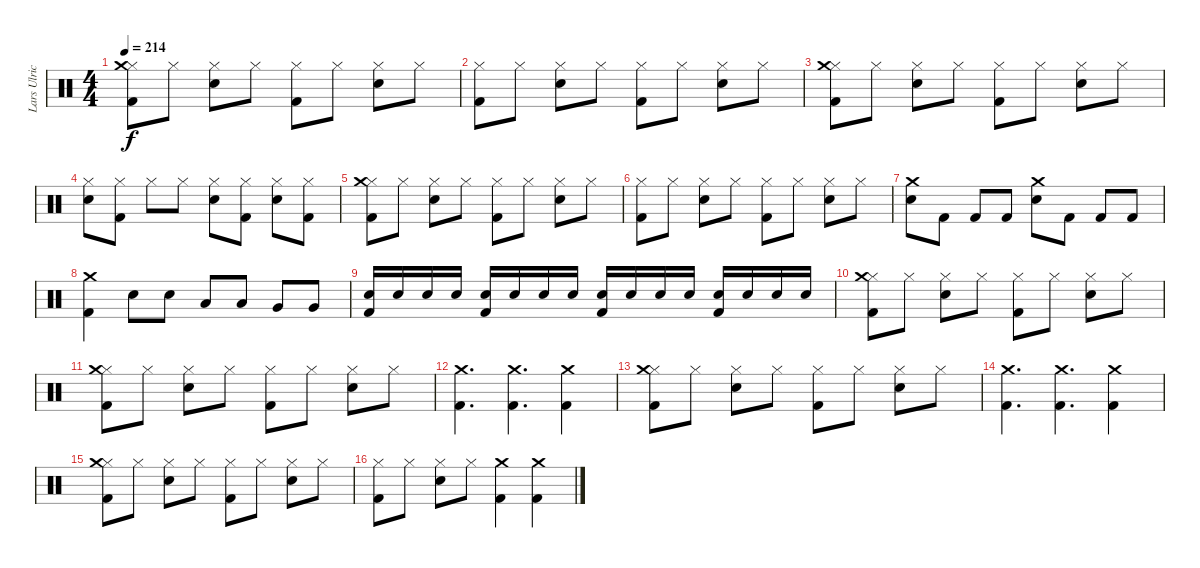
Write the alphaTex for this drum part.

\track ("Lars Ulrich" "Lars Ulric") {instrument percussion}
\staff {score}
\articulation defaults
\ts (4 4)
\tempo 214
\clef neutral
\ks c
("Hi-Hat (closed)" "Kick (hit) 2" "Crash medium (hit)").8{dy f} "Hi-Hat (closed)".8 ("Hi-Hat (closed)" "Snare (hit) 2").8 "Hi-Hat (closed)".8 ("Hi-Hat (closed)" "Kick (hit) 2").8 "Hi-Hat (closed)".8 ("Hi-Hat (closed)" "Snare (hit) 2").8 "Hi-Hat (closed)".8 |
("Hi-Hat (closed)" "Kick (hit) 2").8 "Hi-Hat (closed)".8 ("Hi-Hat (closed)" "Snare (hit) 2").8 "Hi-Hat (closed)".8 ("Hi-Hat (closed)" "Kick (hit) 2").8 "Hi-Hat (closed)".8 ("Hi-Hat (closed)" "Snare (hit) 2").8 "Hi-Hat (closed)".8 |
("Hi-Hat (closed)" "Kick (hit) 2" "Crash medium (hit)").8 "Hi-Hat (closed)".8 ("Hi-Hat (closed)" "Snare (hit) 2").8 "Hi-Hat (closed)".8 ("Hi-Hat (closed)" "Kick (hit) 2").8 "Hi-Hat (closed)".8 ("Hi-Hat (closed)" "Snare (hit) 2").8 "Hi-Hat (closed)".8 |
("Hi-Hat (closed)" "Snare (hit) 2").8 ("Hi-Hat (closed)" "Kick (hit) 2").8 "Hi-Hat (closed)".8 "Hi-Hat (closed)".8 ("Hi-Hat (closed)" "Snare (hit) 2").8 ("Hi-Hat (closed)" "Kick (hit) 2").8 ("Hi-Hat (closed)" "Snare (hit) 2").8 ("Hi-Hat (closed)" "Kick (hit) 2").8 |
("Hi-Hat (closed)" "Kick (hit) 2" "Crash medium (hit)").8 "Hi-Hat (closed)".8 ("Hi-Hat (closed)" "Snare (hit) 2").8 "Hi-Hat (closed)".8 ("Hi-Hat (closed)" "Kick (hit) 2").8 "Hi-Hat (closed)".8 ("Hi-Hat (closed)" "Snare (hit) 2").8 "Hi-Hat (closed)".8 |
("Hi-Hat (closed)" "Kick (hit) 2").8 "Hi-Hat (closed)".8 ("Hi-Hat (closed)" "Snare (hit) 2").8 "Hi-Hat (closed)".8 ("Hi-Hat (closed)" "Kick (hit) 2").8 "Hi-Hat (closed)".8 ("Hi-Hat (closed)" "Snare (hit) 2").8 "Hi-Hat (closed)".8 |
("Snare (hit) 2" "Crash medium (hit)").8 "Kick (hit) 2".8 "Kick (hit) 2".8 "Kick (hit) 2".8 ("Snare (hit) 2" "Crash medium (hit)").8 "Kick (hit) 2".8 "Kick (hit) 2".8 "Kick (hit) 2".8 |
("Kick (hit) 2" "Crash medium (hit)").4 "Snare (hit) 2".8 "Snare (hit) 2".8 "Low Tom (hit)".8 "Low Tom (hit)".8 "Very Low Tom (hit)".8 "Very Low Tom (hit)".8 |
("Snare (hit) 2" "Kick (hit) 2").16{volume 7} "Snare (hit) 2".16 "Snare (hit) 2".16 "Snare (hit) 2".16 ("Snare (hit) 2" "Kick (hit) 2").16{volume 9} "Snare (hit) 2".16 "Snare (hit) 2".16 "Snare (hit) 2".16 ("Snare (hit) 2" "Kick (hit) 2").16{volume 11} "Snare (hit) 2".16 "Snare (hit) 2".16 "Snare (hit) 2".16 ("Snare (hit) 2" "Kick (hit) 2").16{volume 13} "Snare (hit) 2".16 "Snare (hit) 2".16 "Snare (hit) 2".16 |
("Hi-Hat (closed)" "Kick (hit) 2" "Crash medium (hit)").8 "Hi-Hat (closed)".8 ("Hi-Hat (closed)" "Snare (hit) 2").8 "Hi-Hat (closed)".8 ("Hi-Hat (closed)" "Kick (hit) 2").8 "Hi-Hat (closed)".8 ("Hi-Hat (closed)" "Snare (hit) 2").8 "Hi-Hat (closed)".8 |
("Hi-Hat (closed)" "Kick (hit) 2" "Crash medium (hit)").8 "Hi-Hat (closed)".8 ("Hi-Hat (closed)" "Snare (hit) 2").8 "Hi-Hat (closed)".8 ("Hi-Hat (closed)" "Kick (hit) 2").8 "Hi-Hat (closed)".8 ("Hi-Hat (closed)" "Snare (hit) 2").8 "Hi-Hat (closed)".8 |
("Kick (hit) 2" "Crash medium (hit)").4{d} ("Crash medium (hit)" "Kick (hit) 2").4{d} ("Kick (hit) 2" "Crash medium (hit)").4 |
("Hi-Hat (closed)" "Kick (hit) 2" "Crash medium (hit)").8 "Hi-Hat (closed)".8 ("Hi-Hat (closed)" "Snare (hit) 2").8 "Hi-Hat (closed)".8 ("Hi-Hat (closed)" "Kick (hit) 2").8 "Hi-Hat (closed)".8 ("Hi-Hat (closed)" "Snare (hit) 2").8 "Hi-Hat (closed)".8 |
("Kick (hit) 2" "Crash medium (hit)").4{d} ("Crash medium (hit)" "Kick (hit) 2").4{d} ("Kick (hit) 2" "Crash medium (hit)").4 |
("Hi-Hat (closed)" "Kick (hit) 2" "Crash medium (hit)").8 "Hi-Hat (closed)".8 ("Hi-Hat (closed)" "Snare (hit) 2").8 "Hi-Hat (closed)".8 ("Hi-Hat (closed)" "Kick (hit) 2").8 "Hi-Hat (closed)".8 ("Hi-Hat (closed)" "Snare (hit) 2").8 "Hi-Hat (closed)".8 |
("Hi-Hat (closed)" "Kick (hit) 2").8 "Hi-Hat (closed)".8 ("Hi-Hat (closed)" "Snare (hit) 2").8 "Hi-Hat (closed)".8 ("Kick (hit) 2" "Crash medium (hit)").4 ("Kick (hit) 2" "Crash medium (hit)").4
